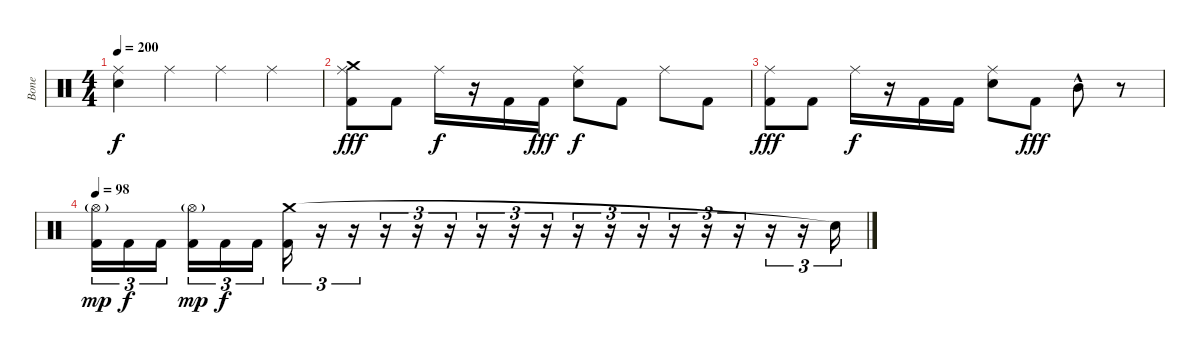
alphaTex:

\track ("Bone " "Bone ") {instrument percussion}
\staff {score}
\articulation defaults
\ts (4 4)
\tempo 200
\clef neutral
\ks c
("Ride (middle)" "Electric Snare (hit)").4{dy f} "Ride (middle)".4 "Ride (middle)".4 "Ride (middle)".4 |
("Ride (middle)" "Crash medium (hit)" "Kick (hit) 2").8{dy fff} "Kick (hit) 2".8 "Ride (middle)".16{dy f} r.16 "Kick (hit) 2".16 "Kick (hit) 2".16{dy fff} ("Ride (middle)" "Electric Snare (hit)").8{dy f} "Kick (hit) 2".8 "Ride (middle)".8 "Kick (hit) 2".8 |
("Ride (middle)" "Kick (hit) 2").8{dy fff} "Kick (hit) 2".8 "Ride (middle)".16{dy f} r.16 "Kick (hit) 2".16 "Kick (hit) 2".16 ("Ride (middle)" "Electric Snare (hit)").8 "Kick (hit) 2".8{dy fff} "Mid Tom (hit)"{hac}.8 r.8 |
\tempo 98
("Hi-Hat (open)"{g} "Kick (hit) 2").16{tu (3 2) dy mp} "Kick (hit) 2".16{tu (3 2) dy f} "Kick (hit) 2".16{tu (3 2) beam splitsecondary} ("Hi-Hat (open)"{g} "Kick (hit) 2").16{tu (3 2) dy mp} "Kick (hit) 2".16{tu (3 2) dy f} "Kick (hit) 2".16{tu (3 2)} ("Crash medium (hit)" "Kick (hit) 2").16{tu (3 2)} r.16{tu (3 2)} r.16{tu (3 2)} r.16{tu (3 2)} r.16{tu (3 2)} r.16{tu (3 2)} r.16{tu (3 2)} r.16{tu (3 2)} r.16{tu (3 2)} r.16{tu (3 2)} r.16{tu (3 2)} r.16{tu (3 2)} r.16{tu (3 2)} r.16{tu (3 2)} r.16{tu (3 2)} r.16{tu (3 2)} r.16{tu (3 2)} "Snare (hit)"{t}.16{tu (3 2)}
